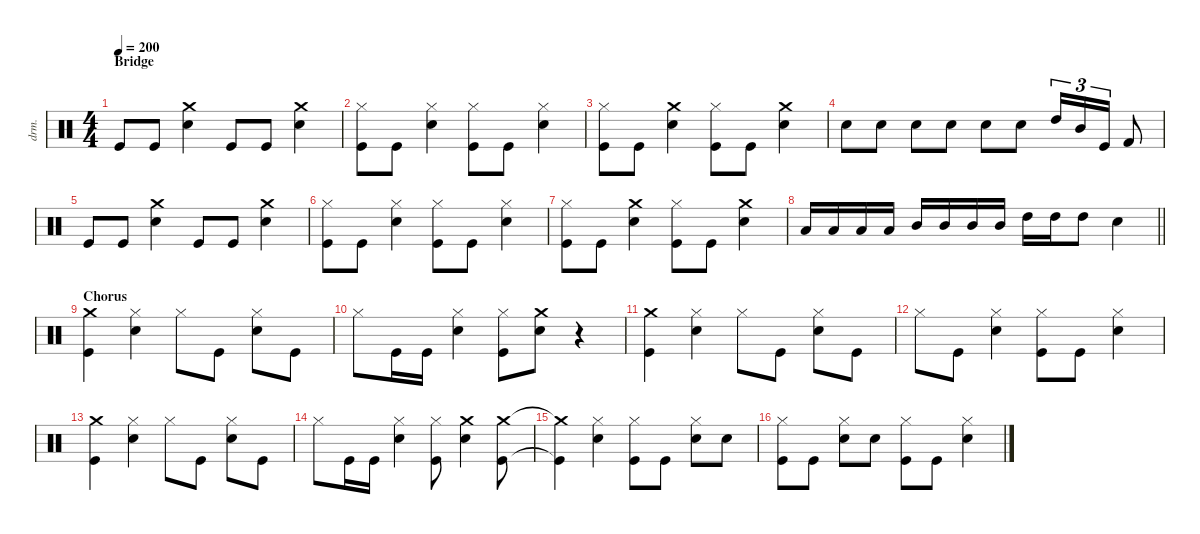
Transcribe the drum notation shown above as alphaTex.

\defaultSystemsLayout 4
\hideDynamics
\bracketExtendMode nobrackets
\otherSystemsTrackNameOrientation horizontal
\track ("Lars Ulrich (Drums)" "drm.") {instrument percussion}
\staff {score}
\articulation defaults
\ts (4 4)
\section ("" "Bridge")
\tempo 200
\clef neutral
\ks c "Kick (hit)".8{dy f beam Up} "Kick (hit)".8{beam Up}
("Crash medium (hit)" "Snare (hit) 2").4{beam Down} "Kick (hit)".8{beam Up} "Kick (hit)".8{beam Up} ("Crash medium (hit)" "Snare (hit) 2").4{beam Down} |
("Kick (hit)" "Hi-Hat (closed)").8{beam Down} "Kick (hit)".8{beam Down} ("Snare (hit) 2" "Hi-Hat (closed)").4{beam Down} ("Kick (hit)" "Hi-Hat (closed)").8{beam Down} "Kick (hit)".8{beam Down} ("Snare (hit) 2" "Hi-Hat (closed)").4{beam Down} |
("Kick (hit)" "Hi-Hat (closed)").8{beam Down} "Kick (hit)".8{beam Down} ("Snare (hit) 2" "Crash medium (hit)").4{beam Down} ("Kick (hit)" "Hi-Hat (closed)").8{beam Down} "Kick (hit)".8{beam Down} ("Crash medium (hit)" "Snare (hit) 2").4{beam Down} |
"Snare (hit) 2".8{beam Down} "Snare (hit) 2".8{beam Down} "Snare (hit) 2".8{beam Down} "Snare (hit) 2".8{beam Down} "Snare (hit) 2".8{beam Down} "Snare (hit) 2".8{beam Down} "High Tom (hit)".16{tu (3 2) beam Up} "Mid Tom (hit)".16{tu (3 2) beam Up} "Kick (hit)".16{tu (3 2) beam Up} "Kick (hit) 2".8{beam Up} |
"Kick (hit)".8{beam Up} "Kick (hit)".8{beam Up} ("Crash medium (hit)" "Snare (hit) 2").4{beam Down} "Kick (hit)".8{beam Up} "Kick (hit)".8{beam Up} ("Crash medium (hit)" "Snare (hit) 2").4{beam Down} |
("Kick (hit)" "Hi-Hat (closed)").8{beam Down} "Kick (hit)".8{beam Down} ("Snare (hit) 2" "Hi-Hat (closed)").4{beam Down} ("Kick (hit)" "Hi-Hat (closed)").8{beam Down} "Kick (hit)".8{beam Down} ("Snare (hit) 2" "Hi-Hat (closed)").4{beam Down} |
("Kick (hit)" "Hi-Hat (closed)").8{beam Down} "Kick (hit)".8{beam Down} ("Snare (hit) 2" "Crash medium (hit)").4{beam Down} ("Kick (hit)" "Hi-Hat (closed)").8{beam Down} "Kick (hit)".8{beam Down} ("Crash medium (hit)" "Snare (hit) 2").4{beam Down} |
\barLineRight lightlight "Low Tom (hit)".16{beam Up} "Low Tom (hit)".16{beam Up} "Low Tom (hit)".16{beam Up} "Low Tom (hit)".16{beam Up} "Mid Tom (hit)".16{beam Up} "Mid Tom (hit)".16{beam Up} "Mid Tom (hit)".16{beam Up} "Mid Tom (hit)".16{beam Up} "High Tom (hit)".16{beam Down} "High Tom (hit)".16{beam Down} "High Tom (hit)".8{beam Down} "Snare (hit) 2".4{beam Down}
|
\section ("" "Chorus")
("Kick (hit)" "Crash medium (hit)").4{beam Down} ("Hi-Hat (closed)" "Snare (hit) 2").4{beam Down} "Hi-Hat (closed)".8{beam Down} "Kick (hit)".8{beam Down} ("Snare (hit) 2" "Hi-Hat (closed)").8{beam Down} "Kick (hit)".8{beam Down} |
"Hi-Hat (closed)".8{beam Down} "Kick (hit)".16{beam Down} "Kick (hit)".16{beam Down} ("Snare (hit) 2" "Hi-Hat (closed)").4{beam Down} ("Kick (hit)" "Hi-Hat (closed)").8{beam Down} ("Snare (hit) 2" "Crash medium (hit)").8{beam Down} r.4{beam Down} |
("Kick (hit)" "Crash medium (hit)").4{beam Down} ("Hi-Hat (closed)" "Snare (hit) 2").4{beam Down} "Hi-Hat (closed)".8{beam Down} "Kick (hit)".8{beam Down} ("Snare (hit) 2" "Hi-Hat (closed)").8{beam Down} "Kick (hit)".8{beam Down} |
"Hi-Hat (closed)".8{beam Down} "Kick (hit)".8{beam Down} ("Snare (hit) 2" "Hi-Hat (closed)").4{beam Down} ("Hi-Hat (closed)" "Kick (hit)").8{beam Down} "Kick (hit)".8{beam Down} ("Snare (hit) 2" "Hi-Hat (closed)").4{beam Down} |
("Kick (hit)" "Crash medium (hit)").4{beam Down} ("Hi-Hat (closed)" "Snare (hit) 2").4{beam Down} "Hi-Hat (closed)".8{beam Down} "Kick (hit)".8{beam Down} ("Snare (hit) 2" "Hi-Hat (closed)").8{beam Down} "Kick (hit)".8{beam Down} |
"Hi-Hat (closed)".8{beam Down} "Kick (hit)".16{beam Down} "Kick (hit)".16{beam Down} ("Snare (hit) 2" "Hi-Hat (closed)").4{beam Down} ("Kick (hit)" "Hi-Hat (closed)").8{beam Down} ("Snare (hit) 2" "Crash medium (hit)").4{beam Down} ("Kick (hit)" "Crash medium (hit)").8{beam Down} |
("Kick (hit)"{t} "Crash medium (hit)"{t}).4{beam Down} ("Hi-Hat (closed)" "Snare (hit) 2").4{beam Down} ("Kick (hit)" "Hi-Hat (closed)").8{beam Down} "Kick (hit)".8{beam Down} ("Hi-Hat (closed)" "Snare (hit) 2").8{beam Down} "Snare (hit) 2".8{beam Down} |
("Kick (hit)" "Hi-Hat (closed)").8{beam Down} "Kick (hit)".8{beam Down} ("Hi-Hat (closed)" "Snare (hit) 2").8{beam Down} "Snare (hit) 2".8{beam Down} ("Kick (hit)" "Hi-Hat (closed)").8{beam Down} "Kick (hit)".8{beam Down} ("Snare (hit) 2" "Hi-Hat (closed)").4{beam Down}
